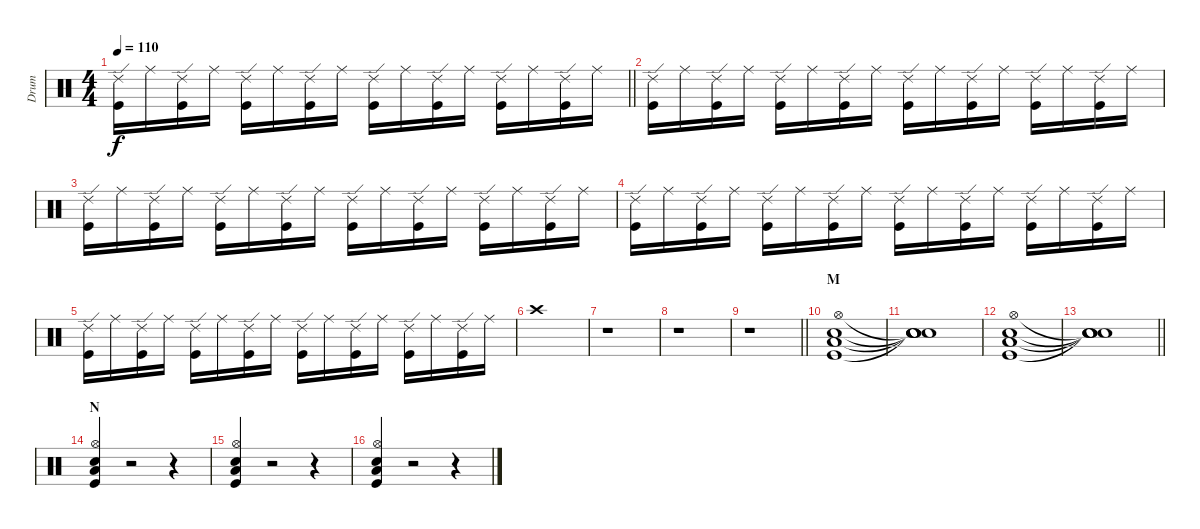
\track ("Drum" "Drum") {instrument percussion}
\staff {score}
\articulation defaults
\ts (4 4)
\tempo 110
\clef neutral
\barLineRight lightlight
\ks c
("Ride (edge) 2" "Kick (hit)").16{dy f} "Ride (middle)".16 ("Ride (edge) 2" "Kick (hit)").16 "Ride (middle)".16 ("Ride (edge) 2" "Kick (hit)").16 "Ride (middle)".16 ("Ride (edge) 2" "Kick (hit)").16 "Ride (middle)".16 ("Ride (edge) 2" "Kick (hit)").16 "Ride (middle)".16 ("Ride (edge) 2" "Kick (hit)").16 "Ride (middle)".16 ("Ride (edge) 2" "Kick (hit)").16 "Ride (middle)".16 ("Ride (edge) 2" "Kick (hit)").16 "Ride (middle)".16 |
("Ride (edge) 2" "Kick (hit)").16 "Ride (middle)".16 ("Ride (edge) 2" "Kick (hit)").16 "Ride (middle)".16 ("Ride (edge) 2" "Kick (hit)").16 "Ride (middle)".16 ("Ride (edge) 2" "Kick (hit)").16 "Ride (middle)".16 ("Ride (edge) 2" "Kick (hit)").16 "Ride (middle)".16 ("Ride (edge) 2" "Kick (hit)").16 "Ride (middle)".16 ("Ride (edge) 2" "Kick (hit)").16 "Ride (middle)".16 ("Ride (edge) 2" "Kick (hit)").16 "Ride (middle)".16 |
("Ride (edge) 2" "Kick (hit)").16 "Ride (middle)".16 ("Ride (edge) 2" "Kick (hit)").16 "Ride (middle)".16 ("Ride (edge) 2" "Kick (hit)").16 "Ride (middle)".16 ("Ride (edge) 2" "Kick (hit)").16 "Ride (middle)".16 ("Ride (edge) 2" "Kick (hit)").16 "Ride (middle)".16 ("Ride (edge) 2" "Kick (hit)").16 "Ride (middle)".16 ("Ride (edge) 2" "Kick (hit)").16 "Ride (middle)".16 ("Ride (edge) 2" "Kick (hit)").16 "Ride (middle)".16 |
("Ride (edge) 2" "Kick (hit)").16 "Ride (middle)".16 ("Ride (edge) 2" "Kick (hit)").16 "Ride (middle)".16 ("Ride (edge) 2" "Kick (hit)").16 "Ride (middle)".16 ("Ride (edge) 2" "Kick (hit)").16 "Ride (middle)".16 ("Ride (edge) 2" "Kick (hit)").16 "Ride (middle)".16 ("Ride (edge) 2" "Kick (hit)").16 "Ride (middle)".16 ("Ride (edge) 2" "Kick (hit)").16 "Ride (middle)".16 ("Ride (edge) 2" "Kick (hit)").16 "Ride (middle)".16 |
("Ride (edge) 2" "Kick (hit)").16 "Ride (middle)".16 ("Ride (edge) 2" "Kick (hit)").16 "Ride (middle)".16 ("Ride (edge) 2" "Kick (hit)").16 "Ride (middle)".16 ("Ride (edge) 2" "Kick (hit)").16 "Ride (middle)".16 ("Ride (edge) 2" "Kick (hit)").16 "Ride (middle)".16 ("Ride (edge) 2" "Kick (hit)").16 "Ride (middle)".16 ("Ride (edge) 2" "Kick (hit)").16 "Ride (middle)".16 ("Ride (edge) 2" "Kick (hit)").16 "Ride (middle)".16 |
"Crash high (hit)".1 |
r.1 |
r.1 |
\barLineRight lightlight
r.1 |
\section ("" "M")
("Hi-Hat (open)" "Snare (hit) 2" "Low Tom (hit)" "Kick (hit)").1 |
("Snare (hit)"{t} "Snare (hit)"{t} "Snare (hit)"{t} "Snare (hit)"{t}).1 |
("Hi-Hat (open)" "Snare (hit) 2" "Low Tom (hit)" "Kick (hit)").1 |
\barLineRight lightlight
("Snare (hit)"{t} "Snare (hit)"{t} "Snare (hit)"{t} "Snare (hit)"{t}).1 |
\section ("" "N")
("Hi-Hat (open)" "Snare (hit) 2" "Low Tom (hit)" "Kick (hit)").4 r.2 r.4 |
("Hi-Hat (open)" "Snare (hit) 2" "Low Tom (hit)" "Kick (hit)").4 r.2 r.4 |
("Hi-Hat (open)" "Snare (hit) 2" "Low Tom (hit)" "Kick (hit)").4 r.2 r.4
